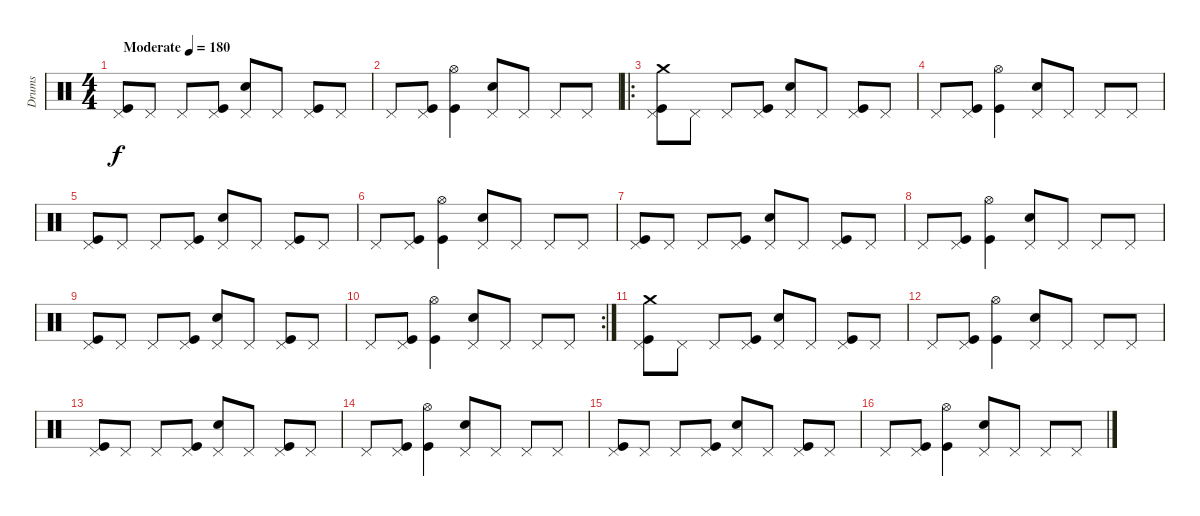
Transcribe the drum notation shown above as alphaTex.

\track ("Drums" "Drums") {instrument percussion}
\staff {score}
\articulation defaults
\ts (4 4)
\tempo (180 "Moderate")
\clef neutral
\ks c
("Pedal Hi-Hat (hit)" "Kick (hit)").8{dy f} "Pedal Hi-Hat (hit)".8 "Pedal Hi-Hat (hit)".8 ("Pedal Hi-Hat (hit)" "Kick (hit)").8 ("Pedal Hi-Hat (hit)" "Electric Snare (hit)").8 "Pedal Hi-Hat (hit)".8 ("Pedal Hi-Hat (hit)" "Kick (hit)").8 "Pedal Hi-Hat (hit)".8 |
"Pedal Hi-Hat (hit)".8 ("Pedal Hi-Hat (hit)" "Kick (hit)").8 ("Hi-Hat (open)" "Kick (hit)").4 ("Pedal Hi-Hat (hit)" "Electric Snare (hit)").8 "Pedal Hi-Hat (hit)".8 "Pedal Hi-Hat (hit)".8 "Pedal Hi-Hat (hit)".8 |
\ro
("Crash medium (hit)" "Pedal Hi-Hat (hit)" "Kick (hit)").8 "Pedal Hi-Hat (hit)".8 "Pedal Hi-Hat (hit)".8 ("Pedal Hi-Hat (hit)" "Kick (hit)").8 ("Pedal Hi-Hat (hit)" "Electric Snare (hit)").8 "Pedal Hi-Hat (hit)".8 ("Pedal Hi-Hat (hit)" "Kick (hit)").8 "Pedal Hi-Hat (hit)".8 |
"Pedal Hi-Hat (hit)".8 ("Pedal Hi-Hat (hit)" "Kick (hit)").8 ("Hi-Hat (open)" "Kick (hit)").4 ("Pedal Hi-Hat (hit)" "Electric Snare (hit)").8 "Pedal Hi-Hat (hit)".8 "Pedal Hi-Hat (hit)".8 "Pedal Hi-Hat (hit)".8 |
("Pedal Hi-Hat (hit)" "Kick (hit)").8 "Pedal Hi-Hat (hit)".8 "Pedal Hi-Hat (hit)".8 ("Pedal Hi-Hat (hit)" "Kick (hit)").8 ("Pedal Hi-Hat (hit)" "Electric Snare (hit)").8 "Pedal Hi-Hat (hit)".8 ("Pedal Hi-Hat (hit)" "Kick (hit)").8 "Pedal Hi-Hat (hit)".8 |
"Pedal Hi-Hat (hit)".8 ("Pedal Hi-Hat (hit)" "Kick (hit)").8 ("Hi-Hat (open)" "Kick (hit)").4 ("Pedal Hi-Hat (hit)" "Electric Snare (hit)").8 "Pedal Hi-Hat (hit)".8 "Pedal Hi-Hat (hit)".8 "Pedal Hi-Hat (hit)".8 |
("Pedal Hi-Hat (hit)" "Kick (hit)").8 "Pedal Hi-Hat (hit)".8 "Pedal Hi-Hat (hit)".8 ("Pedal Hi-Hat (hit)" "Kick (hit)").8 ("Pedal Hi-Hat (hit)" "Electric Snare (hit)").8 "Pedal Hi-Hat (hit)".8 ("Pedal Hi-Hat (hit)" "Kick (hit)").8 "Pedal Hi-Hat (hit)".8 |
"Pedal Hi-Hat (hit)".8 ("Pedal Hi-Hat (hit)" "Kick (hit)").8 ("Hi-Hat (open)" "Kick (hit)").4 ("Pedal Hi-Hat (hit)" "Electric Snare (hit)").8 "Pedal Hi-Hat (hit)".8 "Pedal Hi-Hat (hit)".8 "Pedal Hi-Hat (hit)".8 |
("Pedal Hi-Hat (hit)" "Kick (hit)").8 "Pedal Hi-Hat (hit)".8 "Pedal Hi-Hat (hit)".8 ("Pedal Hi-Hat (hit)" "Kick (hit)").8 ("Pedal Hi-Hat (hit)" "Electric Snare (hit)").8 "Pedal Hi-Hat (hit)".8 ("Pedal Hi-Hat (hit)" "Kick (hit)").8 "Pedal Hi-Hat (hit)".8 |
\rc 2 "Pedal Hi-Hat (hit)".8
("Pedal Hi-Hat (hit)" "Kick (hit)").8 ("Hi-Hat (open)" "Kick (hit)").4 ("Pedal Hi-Hat (hit)" "Electric Snare (hit)").8 "Pedal Hi-Hat (hit)".8 "Pedal Hi-Hat (hit)".8 "Pedal Hi-Hat (hit)".8 |
("Crash medium (hit)" "Pedal Hi-Hat (hit)" "Kick (hit)").8 "Pedal Hi-Hat (hit)".8 "Pedal Hi-Hat (hit)".8 ("Pedal Hi-Hat (hit)" "Kick (hit)").8 ("Pedal Hi-Hat (hit)" "Electric Snare (hit)").8 "Pedal Hi-Hat (hit)".8 ("Pedal Hi-Hat (hit)" "Kick (hit)").8 "Pedal Hi-Hat (hit)".8 |
"Pedal Hi-Hat (hit)".8 ("Pedal Hi-Hat (hit)" "Kick (hit)").8 ("Hi-Hat (open)" "Kick (hit)").4 ("Pedal Hi-Hat (hit)" "Electric Snare (hit)").8 "Pedal Hi-Hat (hit)".8 "Pedal Hi-Hat (hit)".8 "Pedal Hi-Hat (hit)".8 |
("Pedal Hi-Hat (hit)" "Kick (hit)").8 "Pedal Hi-Hat (hit)".8 "Pedal Hi-Hat (hit)".8 ("Pedal Hi-Hat (hit)" "Kick (hit)").8 ("Pedal Hi-Hat (hit)" "Electric Snare (hit)").8 "Pedal Hi-Hat (hit)".8 ("Pedal Hi-Hat (hit)" "Kick (hit)").8 "Pedal Hi-Hat (hit)".8 |
"Pedal Hi-Hat (hit)".8 ("Pedal Hi-Hat (hit)" "Kick (hit)").8 ("Hi-Hat (open)" "Kick (hit)").4 ("Pedal Hi-Hat (hit)" "Electric Snare (hit)").8 "Pedal Hi-Hat (hit)".8 "Pedal Hi-Hat (hit)".8 "Pedal Hi-Hat (hit)".8 |
("Pedal Hi-Hat (hit)" "Kick (hit)").8 "Pedal Hi-Hat (hit)".8 "Pedal Hi-Hat (hit)".8 ("Pedal Hi-Hat (hit)" "Kick (hit)").8 ("Pedal Hi-Hat (hit)" "Electric Snare (hit)").8 "Pedal Hi-Hat (hit)".8 ("Pedal Hi-Hat (hit)" "Kick (hit)").8 "Pedal Hi-Hat (hit)".8 |
"Pedal Hi-Hat (hit)".8 ("Pedal Hi-Hat (hit)" "Kick (hit)").8 ("Hi-Hat (open)" "Kick (hit)").4 ("Pedal Hi-Hat (hit)" "Electric Snare (hit)").8 "Pedal Hi-Hat (hit)".8 "Pedal Hi-Hat (hit)".8 "Pedal Hi-Hat (hit)".8
